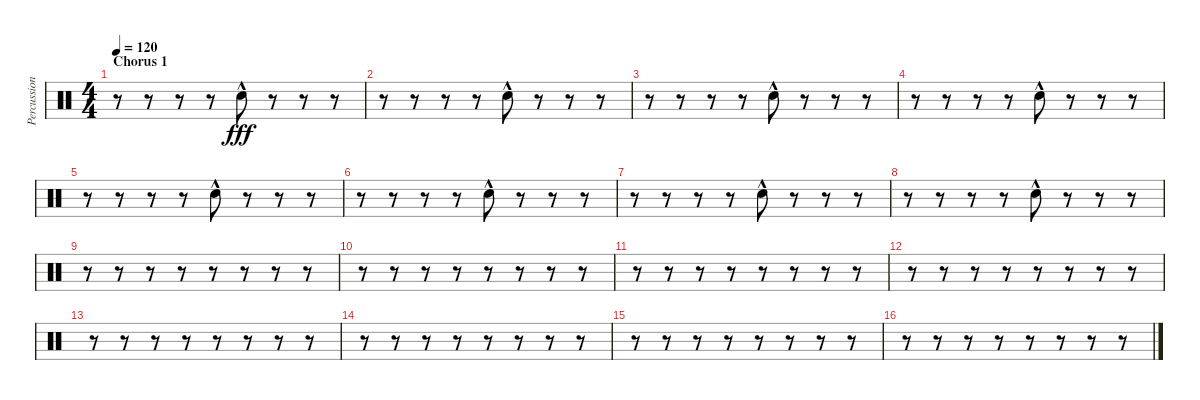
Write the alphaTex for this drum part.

\track ("Percussion" "Percussion") {instrument percussion}
\staff {score}
\articulation defaults
\ts (4 4)
\section ("" "Chorus 1")
\tempo 120
\clef neutral
\ks c
r.8{dy fff} r.8 r.8 r.8 "Snare (hit) 2"{hac}.8 r.8 r.8 r.8 |
r.8 r.8 r.8 r.8 "Snare (hit) 2"{hac}.8 r.8 r.8 r.8 |
r.8 r.8 r.8 r.8 "Snare (hit) 2"{hac}.8 r.8 r.8 r.8 |
r.8 r.8 r.8 r.8 "Snare (hit) 2"{hac}.8 r.8 r.8 r.8 |
r.8 r.8 r.8 r.8 "Snare (hit) 2"{hac}.8 r.8 r.8 r.8 |
r.8 r.8 r.8 r.8 "Snare (hit) 2"{hac}.8 r.8 r.8 r.8 |
r.8 r.8 r.8 r.8 "Snare (hit) 2"{hac}.8 r.8 r.8 r.8 |
r.8 r.8 r.8 r.8 "Snare (hit) 2"{hac}.8 r.8 r.8 r.8 |
r.8 r.8 r.8 r.8 r.8 r.8 r.8 r.8 |
r.8 r.8 r.8 r.8 r.8 r.8 r.8 r.8 |
r.8 r.8 r.8 r.8 r.8 r.8 r.8 r.8 |
r.8 r.8 r.8 r.8 r.8 r.8 r.8 r.8 |
r.8 r.8 r.8 r.8 r.8 r.8 r.8 r.8 |
r.8 r.8 r.8 r.8 r.8 r.8 r.8 r.8 |
r.8 r.8 r.8 r.8 r.8 r.8 r.8 r.8 |
r.8 r.8 r.8 r.8 r.8 r.8 r.8 r.8
